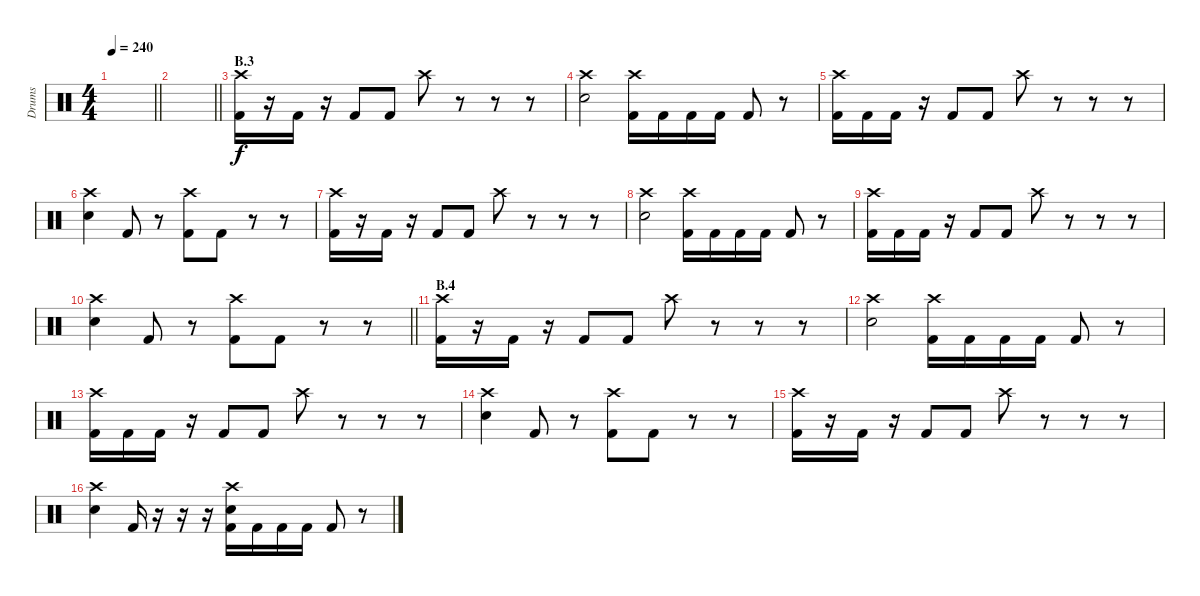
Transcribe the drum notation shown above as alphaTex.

\track ("Drums" "Drums") {instrument percussion}
\staff {score}
\articulation defaults
\ts (4 4)
\tempo 240
\clef neutral
\barLineRight lightlight
\ks c
|
\barLineRight lightlight
|
\section ("" "B.3")
("Crash high (hit)" "Kick (hit) 2").16 r.16 "Kick (hit) 2".16 r.16 "Kick (hit) 2".8 "Kick (hit) 2".8 "Crash high (hit)".8 r.8 r.8 r.8 |
("Crash high (hit)" "Electric Snare (hit)").2 ("Crash high (hit)" "Kick (hit) 2").16 "Kick (hit) 2".16 "Kick (hit) 2".16 "Kick (hit) 2".16 "Kick (hit) 2".8 r.8 |
("Crash high (hit)" "Kick (hit) 2").16 "Kick (hit) 2".16 "Kick (hit) 2".16 r.16 "Kick (hit) 2".8 "Kick (hit) 2".8 "Crash high (hit)".8 r.8 r.8 r.8 |
("Crash high (hit)" "Electric Snare (hit)").4 "Kick (hit) 2".8 r.8 ("Crash high (hit)" "Kick (hit) 2").8 "Kick (hit) 2".8 r.8 r.8 |
("Crash high (hit)" "Kick (hit) 2").16 r.16 "Kick (hit) 2".16 r.16 "Kick (hit) 2".8 "Kick (hit) 2".8 "Crash high (hit)".8 r.8 r.8 r.8 |
("Crash high (hit)" "Electric Snare (hit)").2 ("Crash high (hit)" "Kick (hit) 2").16 "Kick (hit) 2".16 "Kick (hit) 2".16 "Kick (hit) 2".16 "Kick (hit) 2".8 r.8 |
("Crash high (hit)" "Kick (hit) 2").16 "Kick (hit) 2".16 "Kick (hit) 2".16 r.16 "Kick (hit) 2".8 "Kick (hit) 2".8 "Crash high (hit)".8 r.8 r.8 r.8 |
\barLineRight lightlight
("Crash high (hit)" "Electric Snare (hit)").4 "Kick (hit) 2".8 r.8 ("Crash high (hit)" "Kick (hit) 2").8 "Kick (hit) 2".8 r.8 r.8 |
\section ("" "B.4")
("Crash high (hit)" "Kick (hit) 2").16 r.16 "Kick (hit) 2".16 r.16 "Kick (hit) 2".8 "Kick (hit) 2".8 "Crash high (hit)".8 r.8 r.8 r.8 |
("Crash high (hit)" "Electric Snare (hit)").2 ("Crash high (hit)" "Kick (hit) 2").16 "Kick (hit) 2".16 "Kick (hit) 2".16 "Kick (hit) 2".16 "Kick (hit) 2".8 r.8 |
("Crash high (hit)" "Kick (hit) 2").16 "Kick (hit) 2".16 "Kick (hit) 2".16 r.16 "Kick (hit) 2".8 "Kick (hit) 2".8 "Crash high (hit)".8 r.8 r.8 r.8 |
("Crash high (hit)" "Electric Snare (hit)").4 "Kick (hit) 2".8 r.8 ("Crash high (hit)" "Kick (hit) 2").8 "Kick (hit) 2".8 r.8 r.8 |
("Crash high (hit)" "Kick (hit) 2").16 r.16 "Kick (hit) 2".16 r.16 "Kick (hit) 2".8 "Kick (hit) 2".8 "Crash high (hit)".8 r.8 r.8 r.8 |
("Crash high (hit)" "Electric Snare (hit)").4 "Kick (hit) 2".16 r.16 r.16 r.16 ("Crash high (hit)" "Electric Snare (hit)" "Kick (hit) 2").16 "Kick (hit) 2".16 "Kick (hit) 2".16 "Kick (hit) 2".16 "Kick (hit) 2".8 r.8
